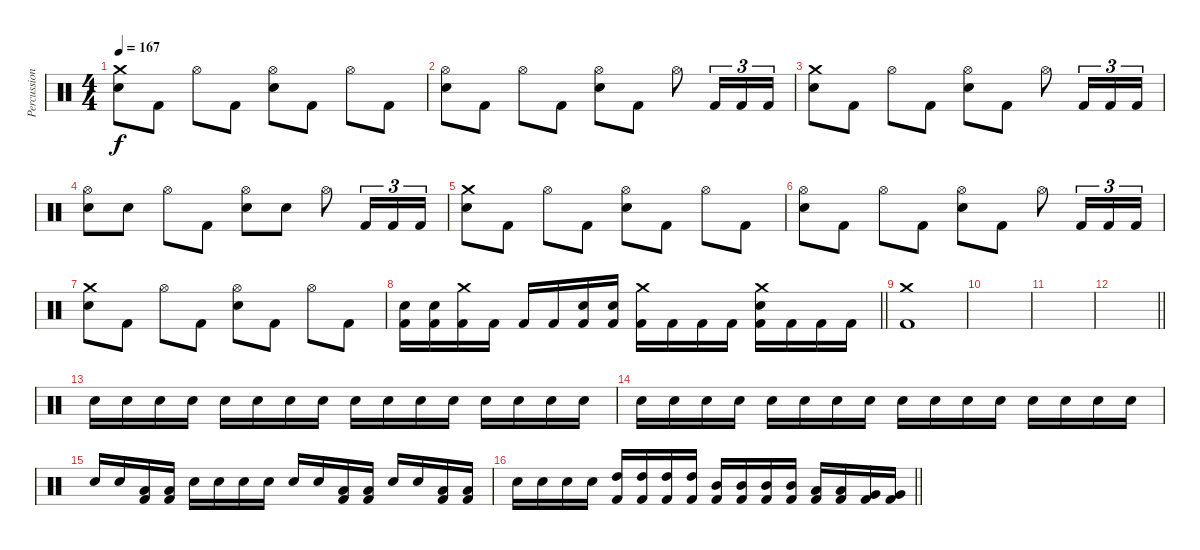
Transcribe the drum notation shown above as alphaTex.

\track ("Percussion" "Percussion") {instrument percussion}
\staff {score}
\articulation defaults
\ts (4 4)
\tempo 167
\clef neutral
\ks c
("Crash medium (hit)" "Snare (hit) 2").8{dy f} "Kick (hit) 2".8 "Hi-Hat (open)".8 "Kick (hit) 2".8 ("Hi-Hat (open)" "Snare (hit) 2").8 "Kick (hit) 2".8 "Hi-Hat (open)".8 "Kick (hit) 2".8 |
("Hi-Hat (open)" "Snare (hit) 2").8 "Kick (hit) 2".8 "Hi-Hat (open)".8 "Kick (hit) 2".8 ("Hi-Hat (open)" "Snare (hit) 2").8 "Kick (hit) 2".8 "Hi-Hat (open)".8 "Kick (hit) 2".16{tu (3 2)} "Kick (hit) 2".16{tu (3 2)} "Kick (hit) 2".16{tu (3 2)} |
("Crash medium (hit)" "Snare (hit) 2").8 "Kick (hit) 2".8 "Hi-Hat (open)".8 "Kick (hit) 2".8 ("Hi-Hat (open)" "Snare (hit) 2").8 "Kick (hit) 2".8 "Hi-Hat (open)".8 "Kick (hit) 2".16{tu (3 2)} "Kick (hit) 2".16{tu (3 2)} "Kick (hit) 2".16{tu (3 2)} |
("Hi-Hat (open)" "Snare (hit) 2").8 "Snare (hit) 2".8 "Hi-Hat (open)".8 "Kick (hit) 2".8 ("Hi-Hat (open)" "Snare (hit) 2").8 "Snare (hit) 2".8 "Hi-Hat (open)".8 "Kick (hit) 2".16{tu (3 2)} "Kick (hit) 2".16{tu (3 2)} "Kick (hit) 2".16{tu (3 2)} |
("Crash medium (hit)" "Snare (hit) 2").8 "Kick (hit) 2".8 "Hi-Hat (open)".8 "Kick (hit) 2".8 ("Hi-Hat (open)" "Snare (hit) 2").8 "Kick (hit) 2".8 "Hi-Hat (open)".8 "Kick (hit) 2".8 |
("Hi-Hat (open)" "Snare (hit) 2").8 "Kick (hit) 2".8 "Hi-Hat (open)".8 "Kick (hit) 2".8 ("Hi-Hat (open)" "Snare (hit) 2").8 "Kick (hit) 2".8 "Hi-Hat (open)".8 "Kick (hit) 2".16{tu (3 2)} "Kick (hit) 2".16{tu (3 2)} "Kick (hit) 2".16{tu (3 2)} |
("Crash medium (hit)" "Snare (hit) 2").8 "Kick (hit) 2".8 "Hi-Hat (open)".8 "Kick (hit) 2".8 ("Hi-Hat (open)" "Snare (hit) 2").8 "Kick (hit) 2".8 "Hi-Hat (open)".8 "Kick (hit) 2".8 |
\barLineRight lightlight
("Snare (hit) 2" "Kick (hit) 2").16 ("Snare (hit) 2" "Kick (hit) 2").16 ("Crash medium (hit)" "Kick (hit) 2").16 "Kick (hit) 2".16 "Kick (hit) 2".16 "Kick (hit) 2".16 ("Snare (hit) 2" "Kick (hit) 2").16 ("Snare (hit) 2" "Kick (hit) 2").16 ("Crash medium (hit)" "Kick (hit) 2").16 "Kick (hit) 2".16 "Kick (hit) 2".16 "Kick (hit) 2".16 ("Crash medium (hit)" "Snare (hit) 2" "Kick (hit) 2").16 "Kick (hit) 2".16 "Kick (hit) 2".16 "Kick (hit) 2".16 |
("Crash medium (hit)" "Kick (hit) 2").1 |
|
|
\barLineRight lightlight
|
"Snare (hit) 2".16 "Snare (hit) 2".16 "Snare (hit) 2".16 "Snare (hit) 2".16 "Snare (hit) 2".16 "Snare (hit) 2".16 "Snare (hit) 2".16 "Snare (hit) 2".16 "Snare (hit) 2".16 "Snare (hit) 2".16 "Snare (hit) 2".16 "Snare (hit) 2".16 "Snare (hit) 2".16 "Snare (hit) 2".16 "Snare (hit) 2".16 "Snare (hit) 2".16 |
"Snare (hit) 2".16 "Snare (hit) 2".16 "Snare (hit) 2".16 "Snare (hit) 2".16 "Snare (hit) 2".16 "Snare (hit) 2".16 "Snare (hit) 2".16 "Snare (hit) 2".16 "Snare (hit) 2".16 "Snare (hit) 2".16 "Snare (hit) 2".16 "Snare (hit) 2".16 "Snare (hit) 2".16 "Snare (hit) 2".16 "Snare (hit) 2".16 "Snare (hit) 2".16 |
"Snare (hit) 2".16 "Snare (hit) 2".16 ("Low Tom (hit)" "Kick (hit) 2").16 ("Low Tom (hit)" "Kick (hit) 2").16 "Snare (hit) 2".16 "Snare (hit) 2".16 "Snare (hit) 2".16 "Snare (hit) 2".16 "Snare (hit) 2".16 "Snare (hit) 2".16 ("Low Tom (hit)" "Kick (hit) 2").16 ("Low Tom (hit)" "Kick (hit) 2").16 "Snare (hit) 2".16 "Snare (hit) 2".16 ("Low Tom (hit)" "Kick (hit) 2").16 ("Low Tom (hit)" "Kick (hit) 2").16 |
\barLineRight lightlight "Snare (hit) 2".16 "Snare (hit) 2".16 "Snare (hit) 2".16 "Snare (hit) 2".16
("High Tom (hit)" "Kick (hit) 2").16 ("High Tom (hit)" "Kick (hit) 2").16 ("High Tom (hit)" "Kick (hit) 2").16 ("High Tom (hit)" "Kick (hit) 2").16 ("Mid Tom (hit)" "Kick (hit) 2").16 ("Mid Tom (hit)" "Kick (hit) 2").16 ("Mid Tom (hit)" "Kick (hit) 2").16 ("Mid Tom (hit)" "Kick (hit) 2").16 ("Low Tom (hit)" "Kick (hit) 2").16 ("Low Tom (hit)" "Kick (hit) 2").16 ("Very Low Tom (hit)" "Kick (hit) 2").16 ("Very Low Tom (hit)" "Kick (hit) 2").16
